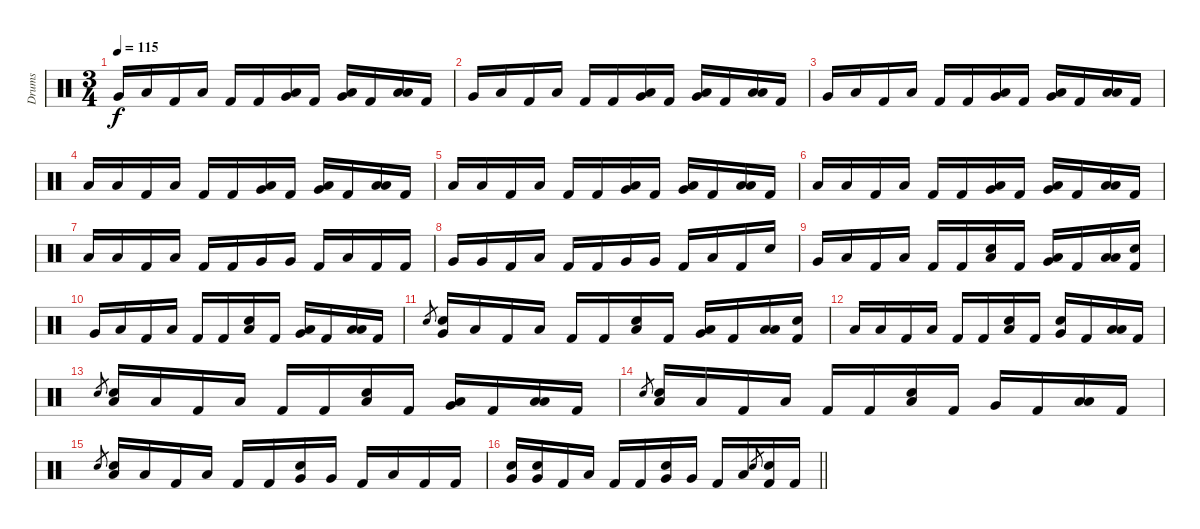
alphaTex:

\track ("Drums" "Drums") {instrument percussion}
\staff {score}
\articulation defaults
\ts (3 4)
\tempo 115
\clef neutral
\ks c "Very Low Tom (hit)".16{dy f} "Low Tom (hit)".16 "Kick (hit) 2".16 "Low Floor Tom (hit)".16 "Kick (hit) 2".16 "Kick (hit) 2".16
("Low Tom (hit)" "Very Low Tom (hit)").16 "Kick (hit) 2".16 ("Very Low Tom (hit)" "Low Floor Tom (hit)").16 "Kick (hit) 2".16 ("Low Floor Tom (hit)" "Low Floor Tom (hit)").16 "Kick (hit) 2".16 |
"Very Low Tom (hit)".16 "Low Tom (hit)".16 "Kick (hit) 2".16 "Low Floor Tom (hit)".16 "Kick (hit) 2".16 "Kick (hit) 2".16 ("Low Tom (hit)" "Very Low Tom (hit)").16 "Kick (hit) 2".16 ("Very Low Tom (hit)" "Low Floor Tom (hit)").16 "Kick (hit) 2".16 ("Low Floor Tom (hit)" "Low Floor Tom (hit)").16 "Kick (hit) 2".16 |
"Very Low Tom (hit)".16 "Low Tom (hit)".16 "Kick (hit) 2".16 "Low Floor Tom (hit)".16 "Kick (hit) 2".16 "Kick (hit) 2".16 ("Low Tom (hit)" "Very Low Tom (hit)").16 "Kick (hit) 2".16 ("Very Low Tom (hit)" "Low Floor Tom (hit)").16 "Kick (hit) 2".16 ("Low Floor Tom (hit)" "Low Floor Tom (hit)").16 "Kick (hit) 2".16 |
"Low Tom (hit)".16 "Low Tom (hit)".16 "Kick (hit) 2".16 "Low Floor Tom (hit)".16 "Kick (hit) 2".16 "Kick (hit) 2".16 ("Low Tom (hit)" "Very Low Tom (hit)").16 "Kick (hit) 2".16 ("Very Low Tom (hit)" "Low Floor Tom (hit)").16 "Kick (hit) 2".16 ("Low Floor Tom (hit)" "Low Floor Tom (hit)").16 "Kick (hit) 2".16 |
"Low Tom (hit)".16 "Low Tom (hit)".16 "Kick (hit) 2".16 "Low Floor Tom (hit)".16 "Kick (hit) 2".16 "Kick (hit) 2".16 ("Low Tom (hit)" "Very Low Tom (hit)").16 "Kick (hit) 2".16 ("Very Low Tom (hit)" "Low Floor Tom (hit)").16 "Kick (hit) 2".16 ("Low Floor Tom (hit)" "Low Floor Tom (hit)").16 "Kick (hit) 2".16 |
"Low Tom (hit)".16 "Low Tom (hit)".16 "Kick (hit) 2".16 "Low Floor Tom (hit)".16 "Kick (hit) 2".16 "Kick (hit) 2".16 ("Low Tom (hit)" "Very Low Tom (hit)").16 "Kick (hit) 2".16 ("Very Low Tom (hit)" "Low Floor Tom (hit)").16 "Kick (hit) 2".16 ("Low Floor Tom (hit)" "Low Floor Tom (hit)").16 "Kick (hit) 2".16 |
"Low Tom (hit)".16 "Low Tom (hit)".16 "Kick (hit) 2".16 "Low Floor Tom (hit)".16 "Kick (hit) 2".16 "Kick (hit) 2".16 "Very Low Tom (hit)".16 "Very Low Tom (hit)".16 "Kick (hit) 2".16 "Low Floor Tom (hit)".16 "Kick (hit) 2".16 "Kick (hit) 2".16 |
"Very Low Tom (hit)".16 "Very Low Tom (hit)".16 "Kick (hit) 2".16 "Low Floor Tom (hit)".16 "Kick (hit) 2".16 "Kick (hit) 2".16 "Very Low Tom (hit)".16 "Very Low Tom (hit)".16 "Kick (hit) 2".16 "Low Floor Tom (hit)".16 "Kick (hit) 2".16 "Electric Snare (hit)".16 |
"Very Low Tom (hit)".16 "Low Tom (hit)".16 "Kick (hit) 2".16 "Low Floor Tom (hit)".16 "Kick (hit) 2".16 "Kick (hit) 2".16 ("Electric Snare (hit)" "Low Tom (hit)").16 "Kick (hit) 2".16 ("Very Low Tom (hit)" "Low Floor Tom (hit)").16 "Kick (hit) 2".16 ("Low Floor Tom (hit)" "Low Floor Tom (hit)").16 ("Electric Snare (hit)" "Kick (hit) 2").16 |
"Very Low Tom (hit)".16 "Low Tom (hit)".16 "Kick (hit) 2".16 "Low Floor Tom (hit)".16 "Kick (hit) 2".16 "Kick (hit) 2".16 ("Electric Snare (hit)" "Low Tom (hit)").16 "Kick (hit) 2".16 ("Very Low Tom (hit)" "Low Floor Tom (hit)").16 "Kick (hit) 2".16 ("Low Floor Tom (hit)" "Low Floor Tom (hit)").16 "Kick (hit) 2".16 |
"Electric Snare (hit)".8{gr} ("Electric Snare (hit)" "Very Low Tom (hit)").16 "Low Tom (hit)".16 "Kick (hit) 2".16 "Low Floor Tom (hit)".16 "Kick (hit) 2".16 "Kick (hit) 2".16 ("Electric Snare (hit)" "Low Tom (hit)").16 "Kick (hit) 2".16 ("Very Low Tom (hit)" "Low Floor Tom (hit)").16 "Kick (hit) 2".16 ("Low Floor Tom (hit)" "Low Floor Tom (hit)").16 ("Electric Snare (hit)" "Kick (hit) 2").16 |
"Low Tom (hit)".16 "Low Tom (hit)".16 "Kick (hit) 2".16 "Low Floor Tom (hit)".16 "Kick (hit) 2".16 "Kick (hit) 2".16 ("Electric Snare (hit)" "Low Tom (hit)").16 "Kick (hit) 2".16 ("Electric Snare (hit)" "Very Low Tom (hit)").16 "Kick (hit) 2".16 ("Low Floor Tom (hit)" "Low Floor Tom (hit)").16 "Kick (hit) 2".16 |
"Electric Snare (hit)".8{gr} ("Electric Snare (hit)" "Low Tom (hit)").16 "Low Tom (hit)".16 "Kick (hit) 2".16 "Low Floor Tom (hit)".16 "Kick (hit) 2".16 "Kick (hit) 2".16 ("Electric Snare (hit)" "Low Tom (hit)").16 "Kick (hit) 2".16 ("Very Low Tom (hit)" "Low Floor Tom (hit)").16 "Kick (hit) 2".16 ("Low Floor Tom (hit)" "Low Floor Tom (hit)").16 "Kick (hit) 2".16 |
"Electric Snare (hit)".8{gr} ("Electric Snare (hit)" "Low Tom (hit)").16 "Low Tom (hit)".16 "Kick (hit) 2".16 "Low Floor Tom (hit)".16 "Kick (hit) 2".16 "Kick (hit) 2".16 ("Electric Snare (hit)" "Low Tom (hit)").16 "Kick (hit) 2".16 "Very Low Tom (hit)".16 "Kick (hit) 2".16 ("Low Floor Tom (hit)" "Low Floor Tom (hit)").16 "Kick (hit) 2".16 |
"Electric Snare (hit)".8{gr} ("Electric Snare (hit)" "Low Tom (hit)").16 "Low Tom (hit)".16 "Kick (hit) 2".16 "Low Floor Tom (hit)".16 "Kick (hit) 2".16 "Kick (hit) 2".16 ("Electric Snare (hit)" "Very Low Tom (hit)").16 "Very Low Tom (hit)".16 "Kick (hit) 2".16 "Low Floor Tom (hit)".16 "Kick (hit) 2".16 "Kick (hit) 2".16 |
\barLineRight lightlight
("Electric Snare (hit)" "Very Low Tom (hit)").16 ("Electric Snare (hit)" "Very Low Tom (hit)").16 "Kick (hit) 2".16 "Low Floor Tom (hit)".16 "Kick (hit) 2".16 "Kick (hit) 2".16 ("Electric Snare (hit)" "Very Low Tom (hit)").16 "Very Low Tom (hit)".16 "Kick (hit) 2".16 "Low Floor Tom (hit)".16 "Electric Snare (hit)".8{gr} ("Electric Snare (hit)" "Kick (hit) 2").16 "Kick (hit) 2".16
